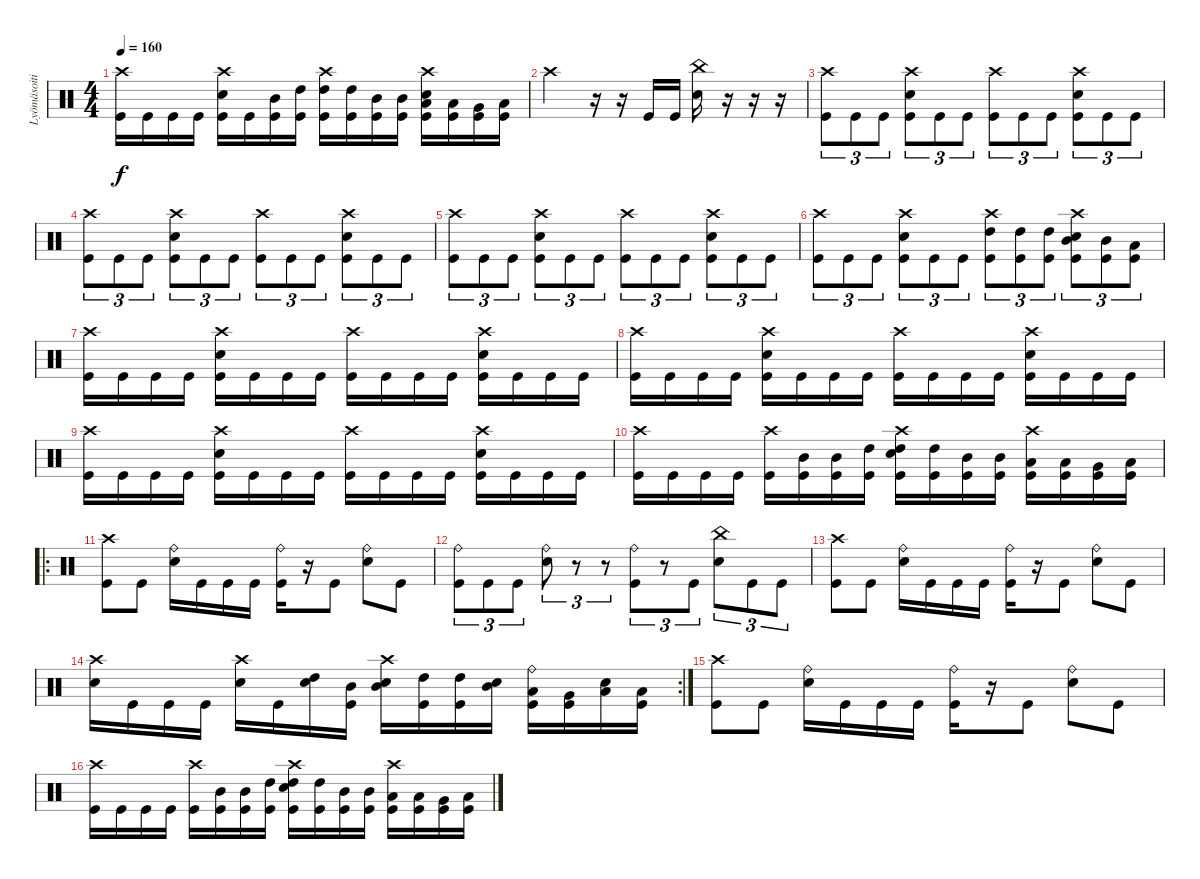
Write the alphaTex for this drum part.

\track ("Lyömäsoitin" "Lyömäsoiti") {instrument percussion}
\staff {score}
\articulation defaults
\ts (4 4)
\tempo 160
\clef neutral
\ks c
("Crash high (hit)" "Kick (hit)").16{dy f} "Kick (hit)".16 "Kick (hit)".16 "Kick (hit)".16 ("Crash high (hit)" "Kick (hit)" "Snare (hit) 2").16 "Kick (hit)".16 ("Kick (hit)" "Mid Tom (hit)").16 ("Kick (hit)" "High Tom (hit)").16 ("Crash high (hit)" "Kick (hit)" "High Tom (hit)").16 ("Kick (hit)" "High Tom (hit)").16 ("Kick (hit)" "Mid Tom (hit)").16 ("Kick (hit)" "Mid Tom (hit)").16 ("Crash high (hit)" "Kick (hit)" "Low Tom (hit)" "Snare (hit) 2").16 ("Kick (hit)" "Low Tom (hit)").16 ("Kick (hit)" "Very Low Tom (hit)").16 ("Kick (hit)" "Low Floor Tom (hit)").16 |
"Crash high (hit)".2 r.16 r.16 "Kick (hit)".16 "Kick (hit)".16 ("Snare (hit) 2" "China (hit)").16 r.16 r.16 r.16 |
("Kick (hit)" "Crash high (hit)").8{tu (3 2)} "Kick (hit)".8{tu (3 2)} "Kick (hit)".8{tu (3 2)} ("Kick (hit)" "Snare (hit) 2" "Crash high (hit)").8{tu (3 2)} "Kick (hit)".8{tu (3 2)} "Kick (hit)".8{tu (3 2)} ("Kick (hit)" "Crash high (hit)").8{tu (3 2)} "Kick (hit)".8{tu (3 2)} "Kick (hit)".8{tu (3 2)} ("Kick (hit)" "Snare (hit) 2" "Crash high (hit)").8{tu (3 2)} "Kick (hit)".8{tu (3 2)} "Kick (hit)".8{tu (3 2)} |
("Kick (hit)" "Crash high (hit)").8{tu (3 2)} "Kick (hit)".8{tu (3 2)} "Kick (hit)".8{tu (3 2)} ("Kick (hit)" "Snare (hit) 2" "Crash high (hit)").8{tu (3 2)} "Kick (hit)".8{tu (3 2)} "Kick (hit)".8{tu (3 2)} ("Kick (hit)" "Crash high (hit)").8{tu (3 2)} "Kick (hit)".8{tu (3 2)} "Kick (hit)".8{tu (3 2)} ("Kick (hit)" "Snare (hit) 2" "Crash high (hit)").8{tu (3 2)} "Kick (hit)".8{tu (3 2)} "Kick (hit)".8{tu (3 2)} |
("Kick (hit)" "Crash high (hit)").8{tu (3 2)} "Kick (hit)".8{tu (3 2)} "Kick (hit)".8{tu (3 2)} ("Kick (hit)" "Snare (hit) 2" "Crash high (hit)").8{tu (3 2)} "Kick (hit)".8{tu (3 2)} "Kick (hit)".8{tu (3 2)} ("Kick (hit)" "Crash high (hit)").8{tu (3 2)} "Kick (hit)".8{tu (3 2)} "Kick (hit)".8{tu (3 2)} ("Kick (hit)" "Snare (hit) 2" "Crash high (hit)").8{tu (3 2)} "Kick (hit)".8{tu (3 2)} "Kick (hit)".8{tu (3 2)} |
("Kick (hit)" "Crash high (hit)").8{tu (3 2)} "Kick (hit)".8{tu (3 2)} "Kick (hit)".8{tu (3 2)} ("Kick (hit)" "Snare (hit) 2" "Crash high (hit)").8{tu (3 2)} "Kick (hit)".8{tu (3 2)} "Kick (hit)".8{tu (3 2)} ("Kick (hit)" "High Tom (hit)" "Crash high (hit)").8{tu (3 2)} ("Kick (hit)" "High Tom (hit)").8{tu (3 2)} ("Kick (hit)" "High Tom (hit)").8{tu (3 2)} ("Kick (hit)" "Snare (hit) 2" "Crash high (hit)" "Mid Tom (hit)").8{tu (3 2)} ("Kick (hit)" "Mid Tom (hit)").8{tu (3 2)} ("Kick (hit)" "Low Floor Tom (hit)").8{tu (3 2)} |
("Crash high (hit)" "Kick (hit)").16 "Kick (hit)".16 "Kick (hit)".16 "Kick (hit)".16 ("Crash high (hit)" "Snare (hit) 2" "Kick (hit)").16 "Kick (hit)".16 "Kick (hit)".16 "Kick (hit)".16 ("Crash high (hit)" "Kick (hit)").16 "Kick (hit)".16 "Kick (hit)".16 "Kick (hit)".16 ("Crash high (hit)" "Snare (hit) 2" "Kick (hit)").16 "Kick (hit)".16 "Kick (hit)".16 "Kick (hit)".16 |
("Crash high (hit)" "Kick (hit)").16 "Kick (hit)".16 "Kick (hit)".16 "Kick (hit)".16 ("Crash high (hit)" "Snare (hit) 2" "Kick (hit)").16 "Kick (hit)".16 "Kick (hit)".16 "Kick (hit)".16 ("Crash high (hit)" "Kick (hit)").16 "Kick (hit)".16 "Kick (hit)".16 "Kick (hit)".16 ("Crash high (hit)" "Snare (hit) 2" "Kick (hit)").16 "Kick (hit)".16 "Kick (hit)".16 "Kick (hit)".16 |
("Crash high (hit)" "Kick (hit)").16 "Kick (hit)".16 "Kick (hit)".16 "Kick (hit)".16 ("Crash high (hit)" "Snare (hit) 2" "Kick (hit)").16 "Kick (hit)".16 "Kick (hit)".16 "Kick (hit)".16 ("Crash high (hit)" "Kick (hit)").16 "Kick (hit)".16 "Kick (hit)".16 "Kick (hit)".16 ("Crash high (hit)" "Snare (hit) 2" "Kick (hit)").16 "Kick (hit)".16 "Kick (hit)".16 "Kick (hit)".16 |
("Crash high (hit)" "Kick (hit)").16 "Kick (hit)".16 "Kick (hit)".16 "Kick (hit)".16 ("Crash high (hit)" "Kick (hit)").16 ("Kick (hit)" "Mid Tom (hit)").16 ("Kick (hit)" "Mid Tom (hit)").16 ("Kick (hit)" "High Tom (hit)").16 ("Crash high (hit)" "Snare (hit) 2" "Kick (hit)" "High Tom (hit)").16 ("Kick (hit)" "High Tom (hit)").16 ("Kick (hit)" "Mid Tom (hit)").16 ("Kick (hit)" "Mid Tom (hit)").16 ("Crash high (hit)" "Kick (hit)" "Low Tom (hit)").16 ("Kick (hit)" "Low Tom (hit)").16 ("Kick (hit)" "Very Low Tom (hit)").16 ("Kick (hit)" "Low Floor Tom (hit)").16 |
\ro
("Crash high (hit)" "Kick (hit)").8 "Kick (hit)".8 ("Ride (bell)" "Snare (hit) 2").16 "Kick (hit)".16 "Kick (hit)".16 "Kick (hit)".16 ("Ride (bell)" "Kick (hit)").16 r.16 "Kick (hit)".8 ("Ride (bell)" "Snare (hit) 2").8 "Kick (hit)".8 |
("Ride (bell)" "Kick (hit)").8{tu (3 2)} "Kick (hit)".8{tu (3 2)} "Kick (hit)".8{tu (3 2)} ("Ride (bell)" "Snare (hit) 2").8{tu (3 2)} r.8{tu (3 2)} r.8{tu (3 2)} ("Ride (bell)" "Kick (hit)").8{tu (3 2)} r.8{tu (3 2)} "Kick (hit)".8{tu (3 2)} ("China (hit)" "Snare (hit) 2").8{tu (3 2)} "Kick (hit)".8{tu (3 2)} "Kick (hit)".8{tu (3 2)} |
("Crash high (hit)" "Kick (hit)").8 "Kick (hit)".8 ("Ride (bell)" "Snare (hit) 2").16 "Kick (hit)".16 "Kick (hit)".16 "Kick (hit)".16 ("Ride (bell)" "Kick (hit)").16 r.16 "Kick (hit)".8 ("Ride (bell)" "Snare (hit) 2").8 "Kick (hit)".8 |
\rc 2
("Crash high (hit)" "Snare (hit) 2").16 "Kick (hit)".16 "Kick (hit)".16 "Kick (hit)".16 ("Crash high (hit)" "Snare (hit) 2").16 "Kick (hit)".16 ("Snare (hit) 2" "High Tom (hit)").16 ("Kick (hit)" "Mid Tom (hit)").16 ("Crash high (hit)" "Snare (hit) 2" "Mid Tom (hit)").16 ("Kick (hit)" "High Tom (hit)").16 ("Kick (hit)" "High Tom (hit)").16 ("Snare (hit) 2" "Mid Tom (hit)").16 ("Ride (bell)" "Kick (hit)" "Low Tom (hit)").16 ("Kick (hit)" "Very Low Tom (hit)").16 ("Snare (hit) 2" "Low Floor Tom (hit)").16 ("Kick (hit)" "Low Floor Tom (hit)").16 |
("Crash high (hit)" "Kick (hit)").8 "Kick (hit)".8 ("Ride (bell)" "Snare (hit) 2").16 "Kick (hit)".16 "Kick (hit)".16 "Kick (hit)".16 ("Ride (bell)" "Kick (hit)").16 r.16 "Kick (hit)".8 ("Ride (bell)" "Snare (hit) 2").8 "Kick (hit)".8 |
("Crash high (hit)" "Kick (hit)").16 "Kick (hit)".16 "Kick (hit)".16 "Kick (hit)".16 ("Crash high (hit)" "Kick (hit)").16 ("Kick (hit)" "Mid Tom (hit)").16 ("Kick (hit)" "Mid Tom (hit)").16 ("Kick (hit)" "High Tom (hit)").16 ("Crash high (hit)" "Snare (hit) 2" "Kick (hit)" "High Tom (hit)").16 ("Kick (hit)" "High Tom (hit)").16 ("Kick (hit)" "Mid Tom (hit)").16 ("Kick (hit)" "Mid Tom (hit)").16 ("Crash high (hit)" "Kick (hit)" "Low Tom (hit)").16 ("Kick (hit)" "Low Tom (hit)").16 ("Kick (hit)" "Very Low Tom (hit)").16 ("Kick (hit)" "Low Floor Tom (hit)").16
